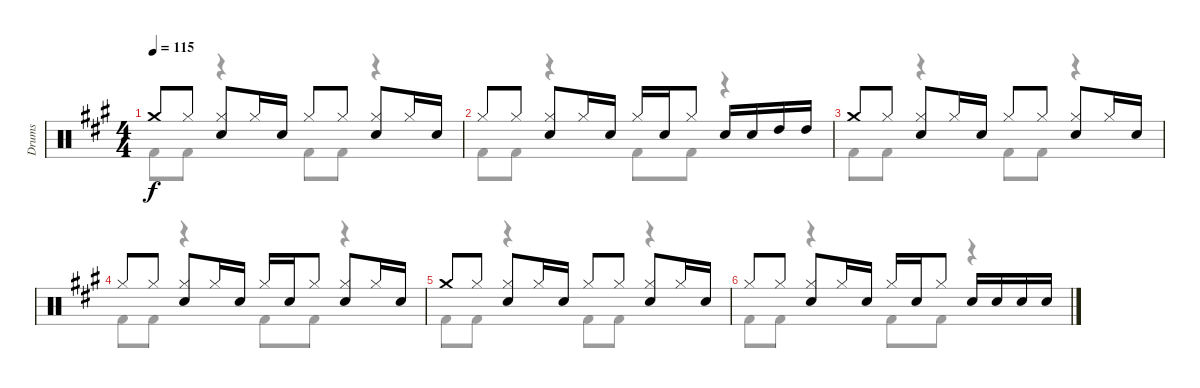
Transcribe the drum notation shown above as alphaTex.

\track ("Drums" "Drums") {instrument percussion}
\staff {score}
\articulation defaults
\voice
\ts (4 4)
\tempo 115
\clef neutral
\ks a "Crash medium (hit)".8{dy f beam Up} "Hi-Hat (closed)".8{beam Up}
("Hi-Hat (closed)" "Electric Snare (hit)").8{beam Up} "Hi-Hat (closed)".16{beam Up} "Electric Snare (hit)".16{beam Up} "Hi-Hat (closed)".8{beam Up} "Hi-Hat (closed)".8{beam Up} ("Hi-Hat (closed)" "Electric Snare (hit)").8{beam Up} "Hi-Hat (closed)".16{beam Up} "Electric Snare (hit)".16{beam Up} |
"Hi-Hat (closed)".8{beam Up} "Hi-Hat (closed)".8{beam Up} ("Hi-Hat (closed)" "Electric Snare (hit)").8{beam Up} "Hi-Hat (closed)".16{beam Up} "Electric Snare (hit)".16{beam Up} "Hi-Hat (closed)".16{beam Up} "Electric Snare (hit)".16{beam Up} "Hi-Hat (closed)".8{beam Up} "Electric Snare (hit)".16 "Electric Snare (hit)".16 "High Tom (hit)".16 "High Tom (hit)".16 |
"Crash medium (hit)".8{beam Up} "Hi-Hat (closed)".8{beam Up} ("Hi-Hat (closed)" "Electric Snare (hit)").8{beam Up} "Hi-Hat (closed)".16{beam Up} "Electric Snare (hit)".16{beam Up} "Hi-Hat (closed)".8{beam Up} "Hi-Hat (closed)".8{beam Up} ("Hi-Hat (closed)" "Electric Snare (hit)").8{beam Up} "Hi-Hat (closed)".16{beam Up} "Electric Snare (hit)".16{beam Up} |
"Hi-Hat (closed)".8{beam Up} "Hi-Hat (closed)".8{beam Up} ("Hi-Hat (closed)" "Electric Snare (hit)").8{beam Up} "Hi-Hat (closed)".16{beam Up} "Electric Snare (hit)".16{beam Up} "Hi-Hat (closed)".16{beam Up} "Electric Snare (hit)".16{beam Up} "Hi-Hat (closed)".8{beam Up} ("Hi-Hat (closed)" "Electric Snare (hit)").8{beam Up} "Hi-Hat (closed)".16{beam Up} "Electric Snare (hit)".16{beam Up} |
"Crash medium (hit)".8{beam Up} "Hi-Hat (closed)".8{beam Up} ("Hi-Hat (closed)" "Electric Snare (hit)").8{beam Up} "Hi-Hat (closed)".16{beam Up} "Electric Snare (hit)".16{beam Up} "Hi-Hat (closed)".8{beam Up} "Hi-Hat (closed)".8{beam Up} ("Hi-Hat (closed)" "Electric Snare (hit)").8{beam Up} "Hi-Hat (closed)".16{beam Up} "Electric Snare (hit)".16{beam Up} |
"Hi-Hat (closed)".8{beam Up} "Hi-Hat (closed)".8{beam Up} ("Hi-Hat (closed)" "Electric Snare (hit)").8{beam Up} "Hi-Hat (closed)".16{beam Up} "Electric Snare (hit)".16{beam Up} "Hi-Hat (closed)".16{beam Up} "Electric Snare (hit)".16{beam Up} "Hi-Hat (closed)".8{beam Up} "Electric Snare (hit)".16 "Electric Snare (hit)".16 "Electric Snare (hit)".16 "Electric Snare (hit)".16 |
\voice
\clef neutral
\ottava regular
\simile none
\ks a "Kick (hit) 2".8{dy f} "Kick (hit) 2".8
r.4 "Kick (hit) 2".8 "Kick (hit) 2".8 r.4 |
"Kick (hit) 2".8 "Kick (hit) 2".8 r.4 "Kick (hit) 2".8 "Kick (hit) 2".8 r.4 |
"Kick (hit) 2".8 "Kick (hit) 2".8 r.4 "Kick (hit) 2".8 "Kick (hit) 2".8 r.4 |
"Kick (hit) 2".8 "Kick (hit) 2".8 r.4 "Kick (hit) 2".8 "Kick (hit) 2".8 r.4 |
"Kick (hit) 2".8 "Kick (hit) 2".8 r.4 "Kick (hit) 2".8 "Kick (hit) 2".8 r.4 |
"Kick (hit) 2".8 "Kick (hit) 2".8 r.4 "Kick (hit) 2".8 "Kick (hit) 2".8 r.4 |
